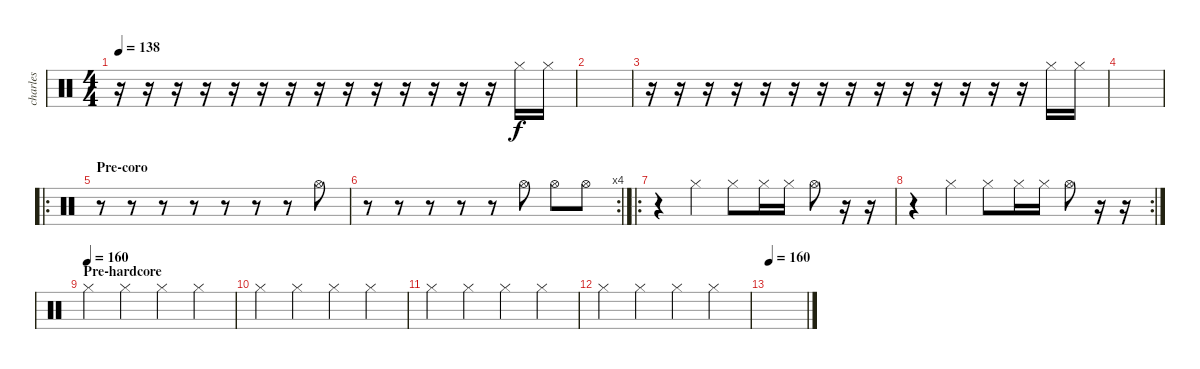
\track ("charles" "charles") {instrument percussion}
\staff {score}
\articulation defaults
\ts (4 4)
\tempo 138
\clef neutral
\ks c
r.16{dy f} r.16 r.16 r.16 r.16 r.16 r.16 r.16 r.16 r.16 r.16 r.16 r.16 r.16 "Hi-Hat (closed)".16 "Hi-Hat (closed)".16 |
|
r.16 r.16 r.16 r.16 r.16 r.16 r.16 r.16 r.16 r.16 r.16 r.16 r.16 r.16 "Hi-Hat (closed)".16 "Hi-Hat (closed)".16 |
|
\ro
\section ("" "Pre-coro")
r.8 r.8 r.8 r.8 r.8 r.8 r.8 "Hi-Hat (open)".8 |
\rc 4
r.8 r.8 r.8 r.8 r.8 "Hi-Hat (open)".8 "Hi-Hat (open)".8 "Hi-Hat (open)".8 |
\ro
r.4 "Hi-Hat (closed)".4 "Hi-Hat (closed)".8 "Hi-Hat (closed)".16 "Hi-Hat (closed)".16 "Hi-Hat (open)".8 r.16 r.16 |
\rc 2
r.4 "Hi-Hat (closed)".4 "Hi-Hat (closed)".8 "Hi-Hat (closed)".16 "Hi-Hat (closed)".16 "Hi-Hat (open)".8 r.16 r.16 |
\section ("" "Pre-hardcore")
\tempo (160)
"Hi-Hat (closed)".4 "Hi-Hat (closed)".4 "Hi-Hat (closed)".4 "Hi-Hat (closed)".4 |
"Hi-Hat (closed)".4 "Hi-Hat (closed)".4 "Hi-Hat (closed)".4 "Hi-Hat (closed)".4 |
"Hi-Hat (closed)".4 "Hi-Hat (closed)".4 "Hi-Hat (closed)".4 "Hi-Hat (closed)".4 |
"Hi-Hat (closed)".4 "Hi-Hat (closed)".4 "Hi-Hat (closed)".4 "Hi-Hat (closed)".4 |
\tempo 160
